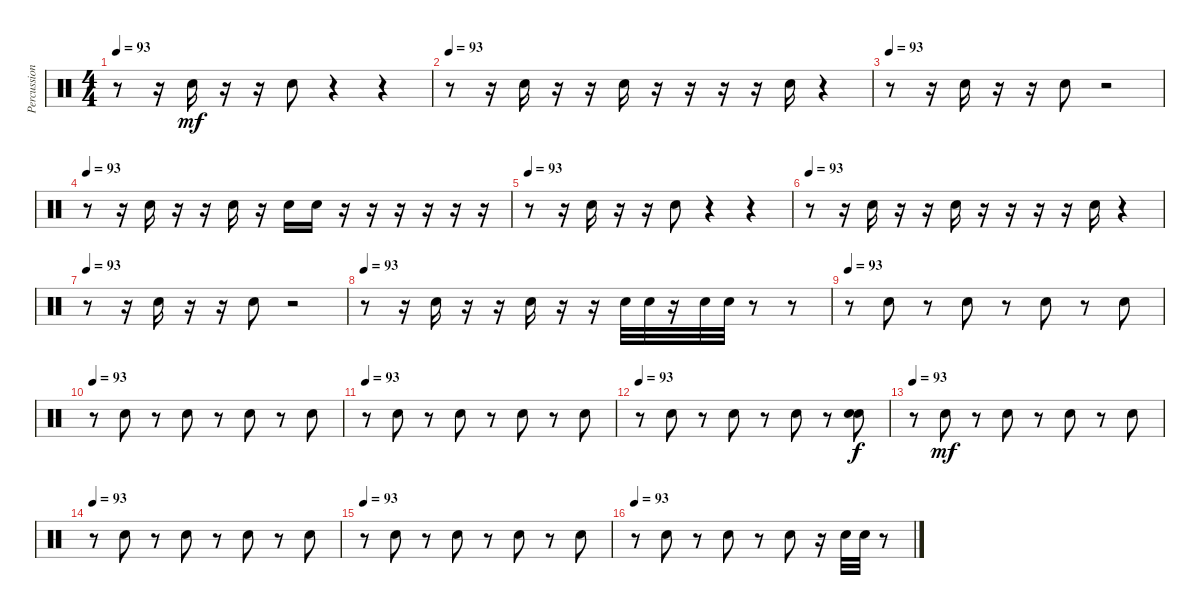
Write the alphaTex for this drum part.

\track ("Percussion" "Percussion") {instrument percussion}
\staff {score}
\articulation defaults
\ts (4 4)
\tempo 93
\clef neutral
\ks c
r.8{dy mf} r.16 "Snare (hit) 2".16 r.16 r.16 "Snare (hit) 2".8 r.4 r.4 |
\tempo 93
r.8 r.16 "Snare (hit) 2".16 r.16 r.16 "Snare (hit) 2".16 r.16 r.16 r.16 r.16 "Snare (hit) 2".16 r.4 |
\tempo 93
r.8 r.16 "Snare (hit) 2".16 r.16 r.16 "Snare (hit) 2".8 r.2 |
\tempo 93
r.8 r.16 "Snare (hit) 2".16 r.16 r.16 "Snare (hit) 2".16 r.16 "Snare (hit) 2".16 "Snare (hit) 2".16 r.16 r.16 r.16 r.16 r.16 r.16 |
\tempo 93
r.8 r.16 "Snare (hit) 2".16 r.16 r.16 "Snare (hit) 2".8 r.4 r.4 |
\tempo 93
r.8 r.16 "Snare (hit) 2".16 r.16 r.16 "Snare (hit) 2".16 r.16 r.16 r.16 r.16 "Snare (hit) 2".16 r.4 |
\tempo 93
r.8 r.16 "Snare (hit) 2".16 r.16 r.16 "Snare (hit) 2".8 r.2 |
\tempo 93
r.8 r.16 "Snare (hit) 2".16 r.16 r.16 "Snare (hit) 2".16 r.16 r.16 "Snare (hit) 2".32 "Snare (hit) 2".32 r.16 "Snare (hit) 2".32 "Snare (hit) 2".32 r.8 r.8 |
\tempo 93
r.8 "Snare (hit) 2".8 r.8 "Snare (hit) 2".8 r.8 "Snare (hit) 2".8 r.8 "Snare (hit) 2".8 |
\tempo 93
r.8 "Snare (hit) 2".8 r.8 "Snare (hit) 2".8 r.8 "Snare (hit) 2".8 r.8 "Snare (hit) 2".8 |
\tempo 93
r.8 "Snare (hit) 2".8 r.8 "Snare (hit) 2".8 r.8 "Snare (hit) 2".8 r.8 "Snare (hit) 2".8 |
\tempo 93
r.8 "Snare (hit) 2".8 r.8 "Snare (hit) 2".8 r.8 "Snare (hit) 2".8 r.8 ("Snare (hit) 2" "Snare (hit) 2").8{dy f} |
\tempo 93
r.8 "Snare (hit) 2".8{dy mf} r.8 "Snare (hit) 2".8 r.8 "Snare (hit) 2".8 r.8 "Snare (hit) 2".8 |
\tempo 93
r.8 "Snare (hit) 2".8 r.8 "Snare (hit) 2".8 r.8 "Snare (hit) 2".8 r.8 "Snare (hit) 2".8 |
\tempo 93
r.8 "Snare (hit) 2".8 r.8 "Snare (hit) 2".8 r.8 "Snare (hit) 2".8 r.8 "Snare (hit) 2".8 |
\tempo 93
r.8 "Snare (hit) 2".8 r.8 "Snare (hit) 2".8 r.8 "Snare (hit) 2".8 r.16 "Snare (hit) 2".32 "Snare (hit) 2".32 r.8
